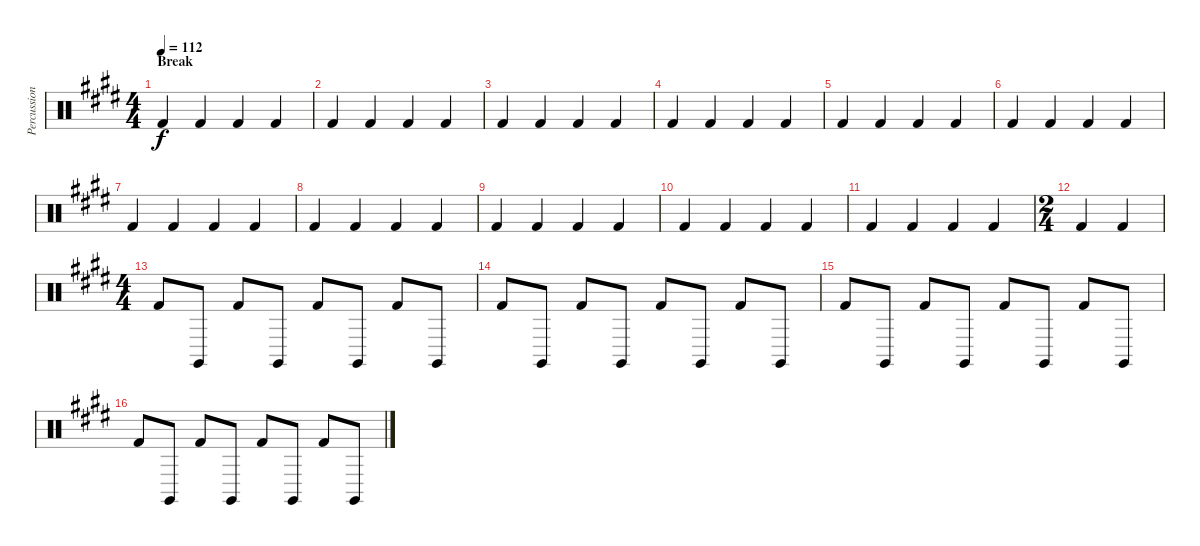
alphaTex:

\track ("Percussion" "Percussion") {instrument percussion}
\staff {score}
\articulation defaults
\ts (4 4)
\section ("" "Break")
\tempo 112
\clef neutral
\ks e "Kick (hit) 2".4{dy f} "Kick (hit) 2".4 "Kick (hit) 2".4 "Kick (hit) 2".4
|
"Kick (hit) 2".4 "Kick (hit) 2".4 "Kick (hit) 2".4 "Kick (hit) 2".4 |
"Kick (hit) 2".4 "Kick (hit) 2".4 "Kick (hit) 2".4 "Kick (hit) 2".4 |
"Kick (hit) 2".4 "Kick (hit) 2".4 "Kick (hit) 2".4 "Kick (hit) 2".4 |
"Kick (hit) 2".4 "Kick (hit) 2".4 "Kick (hit) 2".4 "Kick (hit) 2".4 |
"Kick (hit) 2".4 "Kick (hit) 2".4 "Kick (hit) 2".4 "Kick (hit) 2".4 |
"Kick (hit) 2".4 "Kick (hit) 2".4 "Kick (hit) 2".4 "Kick (hit) 2".4 |
"Kick (hit) 2".4 "Kick (hit) 2".4 "Kick (hit) 2".4 "Kick (hit) 2".4 |
"Kick (hit) 2".4 "Kick (hit) 2".4 "Kick (hit) 2".4 "Kick (hit) 2".4 |
"Kick (hit) 2".4 "Kick (hit) 2".4 "Kick (hit) 2".4 "Kick (hit) 2".4 |
"Kick (hit) 2".4 "Kick (hit) 2".4 "Kick (hit) 2".4 "Kick (hit) 2".4 |
\ts (2 4)
"Kick (hit) 2".4 "Kick (hit) 2".4 |
\ts (4 4)
"Kick (hit) 2".8 "Claves (hit)".8 "Kick (hit) 2".8 "Claves (hit)".8 "Kick (hit) 2".8 "Claves (hit)".8 "Kick (hit) 2".8 "Claves (hit)".8 |
"Kick (hit) 2".8 "Claves (hit)".8 "Kick (hit) 2".8 "Claves (hit)".8 "Kick (hit) 2".8 "Claves (hit)".8 "Kick (hit) 2".8 "Claves (hit)".8 |
"Kick (hit) 2".8 "Claves (hit)".8 "Kick (hit) 2".8 "Claves (hit)".8 "Kick (hit) 2".8 "Claves (hit)".8 "Kick (hit) 2".8 "Claves (hit)".8 |
"Kick (hit) 2".8 "Claves (hit)".8 "Kick (hit) 2".8 "Claves (hit)".8 "Kick (hit) 2".8 "Claves (hit)".8 "Kick (hit) 2".8 "Claves (hit)".8
